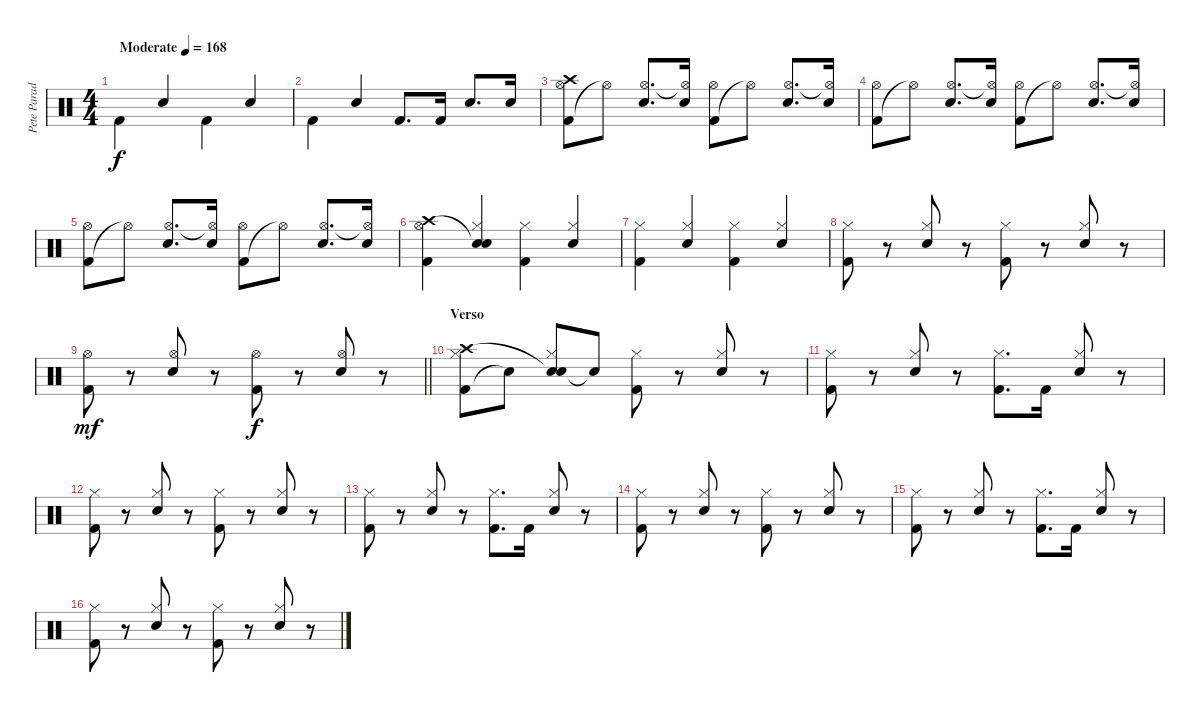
\track ("Pete Parada" "Pete Parad") {instrument percussion}
\staff {score}
\articulation defaults
\ts (4 4)
\tempo (168 "Moderate")
\clef neutral
\ks c "Kick (hit) 2".4{dy f beam Down} "Electric Snare (hit)".4{beam Up} "Kick (hit) 2".4{beam Down} "Electric Snare (hit)".4{beam Up}
|
"Kick (hit) 2".4{beam Down} "Electric Snare (hit)".4{beam Up} "Kick (hit) 2".8{d} "Kick (hit) 2".16 "Electric Snare (hit)".8{d beam Up} "Electric Snare (hit)".16{beam Up} |
("Kick (hit) 2" "Hi-Hat (open)" "Crash high (hit)").8 "Hi-Hat (open)"{t}.8 ("Electric Snare (hit)" "Hi-Hat (open)").8{d beam Up} ("Electric Snare (hit)" "Hi-Hat (open)"{t}).16{beam Up} ("Kick (hit) 2" "Hi-Hat (open)").8 "Hi-Hat (open)"{t}.8 ("Electric Snare (hit)" "Hi-Hat (open)").8{d beam Up} ("Electric Snare (hit)" "Hi-Hat (open)"{t}).16{beam Up} |
("Kick (hit) 2" "Hi-Hat (open)").8 "Hi-Hat (open)"{t}.8 ("Electric Snare (hit)" "Hi-Hat (open)").8{d beam Up} ("Electric Snare (hit)" "Hi-Hat (open)"{t}).16{beam Up} ("Kick (hit) 2" "Hi-Hat (open)").8 "Hi-Hat (open)"{t}.8 ("Electric Snare (hit)" "Hi-Hat (open)").8{d beam Up} ("Electric Snare (hit)" "Hi-Hat (open)"{t}).16{beam Up} |
("Kick (hit) 2" "Hi-Hat (open)").8 "Hi-Hat (open)"{t}.8 ("Electric Snare (hit)" "Hi-Hat (open)").8{d beam Up} ("Electric Snare (hit)" "Hi-Hat (open)"{t}).16{beam Up} ("Kick (hit) 2" "Hi-Hat (open)").8 "Hi-Hat (open)"{t}.8 ("Electric Snare (hit)" "Hi-Hat (open)").8{d beam Up} ("Electric Snare (hit)" "Hi-Hat (open)"{t}).16{beam Up} |
("Kick (hit) 2" "Hi-Hat (open)" "Crash high (hit)").4{beam Down} ("Electric Snare (hit)" "Hi-Hat (closed)" "Snare (hit)"{t}).4{beam Up} ("Kick (hit) 2" "Hi-Hat (closed)").4{beam Down} ("Electric Snare (hit)" "Hi-Hat (closed)").4{beam Up} |
("Kick (hit) 2" "Hi-Hat (closed)").4{beam Down} ("Electric Snare (hit)" "Hi-Hat (closed)").4{beam Up} ("Kick (hit) 2" "Hi-Hat (closed)").4 ("Electric Snare (hit)" "Hi-Hat (closed)").4{beam Up} |
("Kick (hit) 2" "Hi-Hat (closed)").8 r.8 ("Electric Snare (hit)" "Hi-Hat (closed)").8{beam Up} r.8 ("Kick (hit) 2" "Hi-Hat (closed)").8 r.8 ("Electric Snare (hit)" "Hi-Hat (closed)").8{beam Up} r.8 |
\barLineRight lightlight
("Kick (hit) 2" "Hi-Hat (open)").8{dy mf} r.8 ("Electric Snare (hit)" "Hi-Hat (open)").8{beam Up} r.8 ("Kick (hit) 2" "Hi-Hat (open)").8{dy f} r.8 ("Electric Snare (hit)" "Hi-Hat (open)").8{beam Up} r.8 |
\section ("" "Verso")
("Kick (hit) 2" "Hi-Hat (closed)" "Crash high (hit)").8 "Snare (hit)"{t}.8 ("Electric Snare (hit)" "Hi-Hat (closed)" "Snare (hit)"{t}).8{beam Up} "Snare (hit)"{t}.8 ("Kick (hit) 2" "Hi-Hat (closed)").8 r.8 ("Electric Snare (hit)" "Hi-Hat (closed)").8{beam Up} r.8 |
("Kick (hit) 2" "Hi-Hat (closed)").8 r.8 ("Electric Snare (hit)" "Hi-Hat (closed)").8{beam Up} r.8 ("Kick (hit) 2" "Hi-Hat (closed)").8{d} "Kick (hit) 2".16 ("Electric Snare (hit)" "Hi-Hat (closed)").8{beam Up} r.8 |
("Kick (hit) 2" "Hi-Hat (closed)").8 r.8 ("Electric Snare (hit)" "Hi-Hat (closed)").8{beam Up} r.8 ("Kick (hit) 2" "Hi-Hat (closed)").8 r.8 ("Electric Snare (hit)" "Hi-Hat (closed)").8{beam Up} r.8 |
("Kick (hit) 2" "Hi-Hat (closed)").8 r.8 ("Electric Snare (hit)" "Hi-Hat (closed)").8{beam Up} r.8 ("Kick (hit) 2" "Hi-Hat (closed)").8{d} "Kick (hit) 2".16 ("Electric Snare (hit)" "Hi-Hat (closed)").8{beam Up} r.8 |
("Kick (hit) 2" "Hi-Hat (closed)").8 r.8 ("Electric Snare (hit)" "Hi-Hat (closed)").8{beam Up} r.8 ("Kick (hit) 2" "Hi-Hat (closed)").8 r.8 ("Electric Snare (hit)" "Hi-Hat (closed)").8{beam Up} r.8 |
("Kick (hit) 2" "Hi-Hat (closed)").8 r.8 ("Electric Snare (hit)" "Hi-Hat (closed)").8{beam Up} r.8 ("Kick (hit) 2" "Hi-Hat (closed)").8{d} "Kick (hit) 2".16 ("Electric Snare (hit)" "Hi-Hat (closed)").8{beam Up} r.8 |
("Kick (hit) 2" "Hi-Hat (closed)").8 r.8 ("Electric Snare (hit)" "Hi-Hat (closed)").8{beam Up} r.8 ("Kick (hit) 2" "Hi-Hat (closed)").8 r.8 ("Electric Snare (hit)" "Hi-Hat (closed)").8{beam Up} r.8
